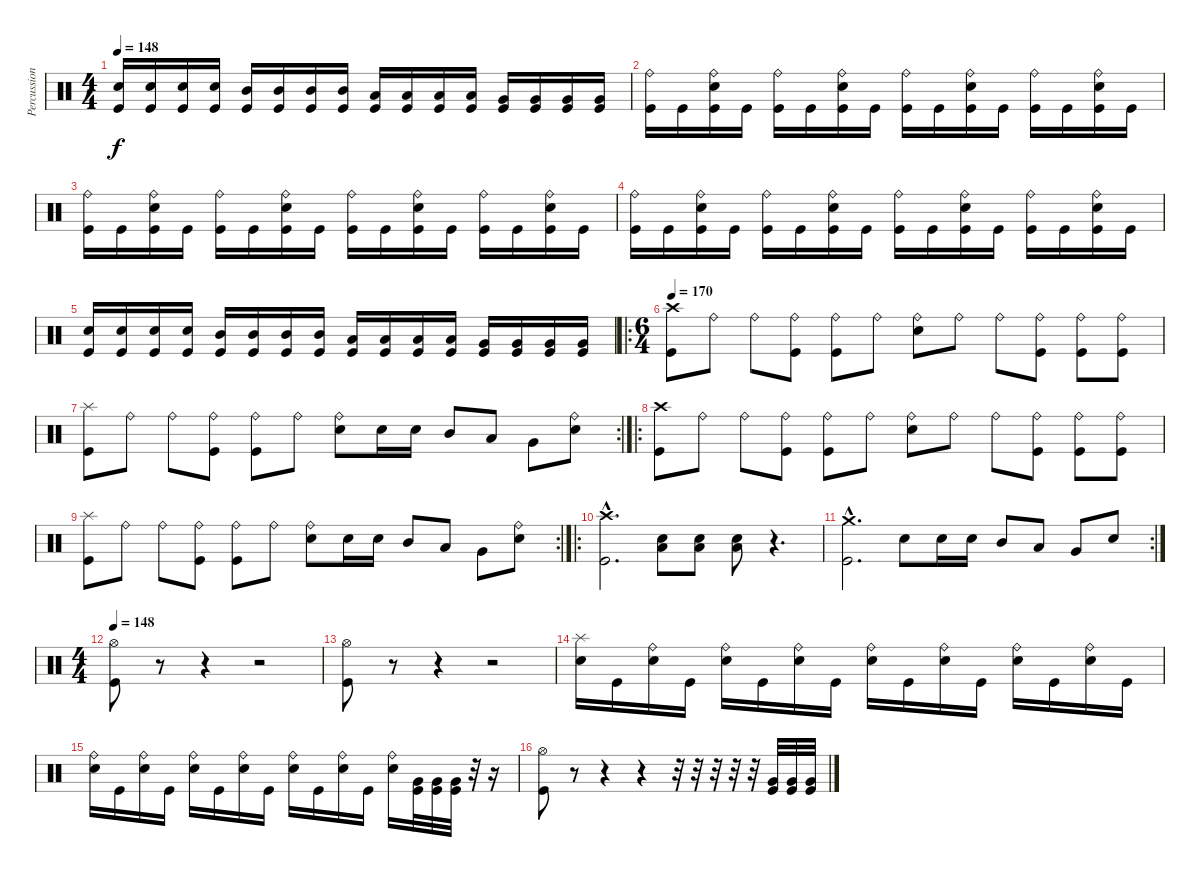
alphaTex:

\track ("Percussions" "Percussion") {instrument percussion}
\staff {score}
\articulation defaults
\ts (4 4)
\tempo 148
\clef neutral
\ks c
("Kick (hit)" "Electric Snare (hit)").16{dy f} ("Kick (hit)" "Electric Snare (hit)").16 ("Kick (hit)" "Electric Snare (hit)").16 ("Kick (hit)" "Electric Snare (hit)").16 ("Kick (hit)" "Mid Tom (hit)").16 ("Kick (hit)" "Mid Tom (hit)").16 ("Kick (hit)" "Mid Tom (hit)").16 ("Kick (hit)" "Mid Tom (hit)").16 ("Kick (hit)" "Low Tom (hit)").16 ("Kick (hit)" "Low Tom (hit)").16 ("Kick (hit)" "Low Tom (hit)").16 ("Kick (hit)" "Low Tom (hit)").16 ("Kick (hit)" "Very Low Tom (hit)").16 ("Kick (hit)" "Very Low Tom (hit)").16 ("Kick (hit)" "Very Low Tom (hit)").16 ("Kick (hit)" "Very Low Tom (hit)").16 |
("Kick (hit)" "Ride (bell)").16 "Kick (hit)".16 ("Kick (hit)" "Electric Snare (hit)" "Ride (bell)").16 "Kick (hit)".16 ("Kick (hit)" "Ride (bell)").16 "Kick (hit)".16 ("Kick (hit)" "Electric Snare (hit)" "Ride (bell)").16 "Kick (hit)".16 ("Kick (hit)" "Ride (bell)").16 "Kick (hit)".16 ("Kick (hit)" "Electric Snare (hit)" "Ride (bell)").16 "Kick (hit)".16 ("Kick (hit)" "Ride (bell)").16 "Kick (hit)".16 ("Kick (hit)" "Electric Snare (hit)" "Ride (bell)").16 "Kick (hit)".16 |
("Kick (hit)" "Ride (bell)").16 "Kick (hit)".16 ("Kick (hit)" "Electric Snare (hit)" "Ride (bell)").16 "Kick (hit)".16 ("Kick (hit)" "Ride (bell)").16 "Kick (hit)".16 ("Kick (hit)" "Electric Snare (hit)" "Ride (bell)").16 "Kick (hit)".16 ("Kick (hit)" "Ride (bell)").16 "Kick (hit)".16 ("Kick (hit)" "Electric Snare (hit)" "Ride (bell)").16 "Kick (hit)".16 ("Kick (hit)" "Ride (bell)").16 "Kick (hit)".16 ("Kick (hit)" "Electric Snare (hit)" "Ride (bell)").16 "Kick (hit)".16 |
("Kick (hit)" "Ride (bell)").16 "Kick (hit)".16 ("Kick (hit)" "Electric Snare (hit)" "Ride (bell)").16 "Kick (hit)".16 ("Kick (hit)" "Ride (bell)").16 "Kick (hit)".16 ("Kick (hit)" "Electric Snare (hit)" "Ride (bell)").16 "Kick (hit)".16 ("Kick (hit)" "Ride (bell)").16 "Kick (hit)".16 ("Kick (hit)" "Electric Snare (hit)" "Ride (bell)").16 "Kick (hit)".16 ("Kick (hit)" "Ride (bell)").16 "Kick (hit)".16 ("Kick (hit)" "Electric Snare (hit)" "Ride (bell)").16 "Kick (hit)".16 |
("Kick (hit)" "Electric Snare (hit)").16 ("Kick (hit)" "Electric Snare (hit)").16 ("Kick (hit)" "Electric Snare (hit)").16 ("Kick (hit)" "Electric Snare (hit)").16 ("Kick (hit)" "Mid Tom (hit)").16 ("Kick (hit)" "Mid Tom (hit)").16 ("Kick (hit)" "Mid Tom (hit)").16 ("Kick (hit)" "Mid Tom (hit)").16 ("Kick (hit)" "Low Tom (hit)").16 ("Kick (hit)" "Low Tom (hit)").16 ("Kick (hit)" "Low Tom (hit)").16 ("Kick (hit)" "Low Tom (hit)").16 ("Kick (hit)" "Very Low Tom (hit)").16 ("Kick (hit)" "Very Low Tom (hit)").16 ("Kick (hit)" "Very Low Tom (hit)").16 ("Kick (hit)" "Very Low Tom (hit)").16 |
\ro
\ts (6 4)
\tempo 170
("Kick (hit)" "Crash high (hit)").8 "Ride (bell)".8 "Ride (bell)".8 ("Kick (hit)" "Ride (bell)").8 ("Kick (hit)" "Ride (bell)").8 "Ride (bell)".8 ("Electric Snare (hit)" "Ride (bell)").8 "Ride (bell)".8 "Ride (bell)".8 ("Kick (hit)" "Ride (bell)").8 ("Kick (hit)" "Ride (bell)").8 ("Kick (hit)" "Ride (bell)").8 |
\rc 2
("Kick (hit)" "Splash (hit)").8 "Ride (bell)".8 "Ride (bell)".8 ("Kick (hit)" "Ride (bell)").8 ("Kick (hit)" "Ride (bell)").8 "Ride (bell)".8 ("Electric Snare (hit)" "Ride (bell)").8 "Electric Snare (hit)".16 "Electric Snare (hit)".16 "Mid Tom (hit)".8 "Low Tom (hit)".8 "Very Low Tom (hit)".8 ("Electric Snare (hit)" "Ride (bell)").8 |
\ro
("Kick (hit)" "Crash high (hit)").8 "Ride (bell)".8 "Ride (bell)".8 ("Kick (hit)" "Ride (bell)").8 ("Kick (hit)" "Ride (bell)").8 "Ride (bell)".8 ("Electric Snare (hit)" "Ride (bell)").8 "Ride (bell)".8 "Ride (bell)".8 ("Kick (hit)" "Ride (bell)").8 ("Kick (hit)" "Ride (bell)").8 ("Kick (hit)" "Ride (bell)").8 |
\rc 2
("Kick (hit)" "Splash (hit)").8 "Ride (bell)".8 "Ride (bell)".8 ("Kick (hit)" "Ride (bell)").8 ("Kick (hit)" "Ride (bell)").8 "Ride (bell)".8 ("Electric Snare (hit)" "Ride (bell)").8 "Electric Snare (hit)".16 "Electric Snare (hit)".16 "Mid Tom (hit)".8 "Low Tom (hit)".8 "Very Low Tom (hit)".8 ("Electric Snare (hit)" "Ride (bell)").8 |
\ro
("Kick (hit)"{hac} "Crash high (hit)"{hac}).2{d} ("Electric Snare (hit)" "Low Floor Tom (hit)").8 ("Electric Snare (hit)" "Low Floor Tom (hit)").8 ("Electric Snare (hit)" "Low Floor Tom (hit)").8 r.4{d} |
\rc 2
("Kick (hit)"{hac} "Crash medium (hit)"{hac}).2{d} "Electric Snare (hit)".8 "Electric Snare (hit)".16 "Electric Snare (hit)".16 "Mid Tom (hit)".8 "Low Tom (hit)".8 "Very Low Tom (hit)".8 "Electric Snare (hit)".8 |
\ts (4 4)
\tempo 148
("Kick (hit)" "Hi-Hat (open)").8 r.8 r.4 r.2 |
("Kick (hit)" "Hi-Hat (open)").8 r.8 r.4 r.2 |
("Electric Snare (hit)" "Splash (hit)").16 "Kick (hit)".16 ("Electric Snare (hit)" "Ride (bell)").16 "Kick (hit)".16 ("Electric Snare (hit)" "Ride (bell)").16 "Kick (hit)".16 ("Electric Snare (hit)" "Ride (bell)").16 "Kick (hit)".16 ("Electric Snare (hit)" "Ride (bell)").16 "Kick (hit)".16 ("Electric Snare (hit)" "Ride (bell)").16 "Kick (hit)".16 ("Electric Snare (hit)" "Ride (bell)").16 "Kick (hit)".16 ("Electric Snare (hit)" "Ride (bell)").16 "Kick (hit)".16 |
("Electric Snare (hit)" "Ride (bell)").16 "Kick (hit)".16 ("Electric Snare (hit)" "Ride (bell)").16 "Kick (hit)".16 ("Electric Snare (hit)" "Ride (bell)").16 "Kick (hit)".16 ("Electric Snare (hit)" "Ride (bell)").16 "Kick (hit)".16 ("Electric Snare (hit)" "Ride (bell)").16 "Kick (hit)".16 ("Electric Snare (hit)" "Ride (bell)").16 "Kick (hit)".16 ("Electric Snare (hit)" "Ride (bell)").16 ("Kick (hit)" "Very Low Tom (hit)").32 ("Kick (hit)" "Very Low Tom (hit)").32 ("Kick (hit)" "Very Low Tom (hit)").32 r.32 r.16 |
("Kick (hit)" "Hi-Hat (open)").8 r.8 r.4 r.4 r.32 r.32 r.32 r.32 r.32 ("Kick (hit)" "Very Low Tom (hit)").32 ("Kick (hit)" "Very Low Tom (hit)").32 ("Kick (hit)" "Very Low Tom (hit)").32
